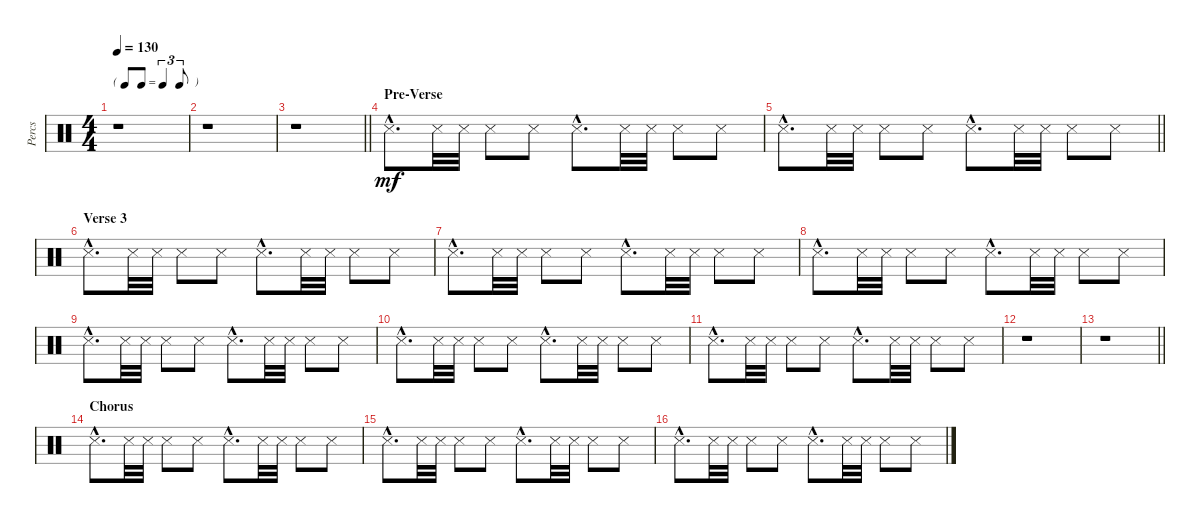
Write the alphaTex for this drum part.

\track ("Percs" "Percs") {instrument percussion}
\staff {score}
\articulation defaults
\ts (4 4)
\tf triplet8th
\tempo 130
\clef neutral
\ks c
r.1{dy mf} |
r.1 |
\barLineRight lightlight
r.1 |
\section ("" "Pre-Verse")
"Snare (side stick) 3"{hac}.8{d} "Snare (side stick) 3".32 "Snare (side stick) 3".32 "Snare (side stick) 3".8 "Snare (side stick) 3".8 "Snare (side stick) 3"{hac}.8{d} "Snare (side stick) 3".32 "Snare (side stick) 3".32 "Snare (side stick) 3".8 "Snare (side stick) 3".8 |
\barLineRight lightlight "Snare (side stick) 3"{hac}.8{d} "Snare (side stick) 3".32 "Snare (side stick) 3".32 "Snare (side stick) 3".8 "Snare (side stick) 3".8 "Snare (side stick) 3"{hac}.8{d} "Snare (side stick) 3".32 "Snare (side stick) 3".32 "Snare (side stick) 3".8 "Snare (side stick) 3".8
|
\section ("" "Verse 3")
"Snare (side stick) 3"{hac}.8{d} "Snare (side stick) 3".32 "Snare (side stick) 3".32 "Snare (side stick) 3".8 "Snare (side stick) 3".8 "Snare (side stick) 3"{hac}.8{d} "Snare (side stick) 3".32 "Snare (side stick) 3".32 "Snare (side stick) 3".8 "Snare (side stick) 3".8 |
"Snare (side stick) 3"{hac}.8{d} "Snare (side stick) 3".32 "Snare (side stick) 3".32 "Snare (side stick) 3".8 "Snare (side stick) 3".8 "Snare (side stick) 3"{hac}.8{d} "Snare (side stick) 3".32 "Snare (side stick) 3".32 "Snare (side stick) 3".8 "Snare (side stick) 3".8 |
"Snare (side stick) 3"{hac}.8{d} "Snare (side stick) 3".32 "Snare (side stick) 3".32 "Snare (side stick) 3".8 "Snare (side stick) 3".8 "Snare (side stick) 3"{hac}.8{d} "Snare (side stick) 3".32 "Snare (side stick) 3".32 "Snare (side stick) 3".8 "Snare (side stick) 3".8 |
"Snare (side stick) 3"{hac}.8{d} "Snare (side stick) 3".32 "Snare (side stick) 3".32 "Snare (side stick) 3".8 "Snare (side stick) 3".8 "Snare (side stick) 3"{hac}.8{d} "Snare (side stick) 3".32 "Snare (side stick) 3".32 "Snare (side stick) 3".8 "Snare (side stick) 3".8 |
"Snare (side stick) 3"{hac}.8{d} "Snare (side stick) 3".32 "Snare (side stick) 3".32 "Snare (side stick) 3".8 "Snare (side stick) 3".8 "Snare (side stick) 3"{hac}.8{d} "Snare (side stick) 3".32 "Snare (side stick) 3".32 "Snare (side stick) 3".8 "Snare (side stick) 3".8 |
"Snare (side stick) 3"{hac}.8{d} "Snare (side stick) 3".32 "Snare (side stick) 3".32 "Snare (side stick) 3".8 "Snare (side stick) 3".8 "Snare (side stick) 3"{hac}.8{d} "Snare (side stick) 3".32 "Snare (side stick) 3".32 "Snare (side stick) 3".8 "Snare (side stick) 3".8 |
r.1 |
\barLineRight lightlight
r.1 |
\section ("" "Chorus")
"Snare (side stick) 3"{hac}.8{d} "Snare (side stick) 3".32 "Snare (side stick) 3".32 "Snare (side stick) 3".8 "Snare (side stick) 3".8 "Snare (side stick) 3"{hac}.8{d} "Snare (side stick) 3".32 "Snare (side stick) 3".32 "Snare (side stick) 3".8 "Snare (side stick) 3".8 |
"Snare (side stick) 3"{hac}.8{d} "Snare (side stick) 3".32 "Snare (side stick) 3".32 "Snare (side stick) 3".8 "Snare (side stick) 3".8 "Snare (side stick) 3"{hac}.8{d} "Snare (side stick) 3".32 "Snare (side stick) 3".32 "Snare (side stick) 3".8 "Snare (side stick) 3".8 |
"Snare (side stick) 3"{hac}.8{d} "Snare (side stick) 3".32 "Snare (side stick) 3".32 "Snare (side stick) 3".8 "Snare (side stick) 3".8 "Snare (side stick) 3"{hac}.8{d} "Snare (side stick) 3".32 "Snare (side stick) 3".32 "Snare (side stick) 3".8 "Snare (side stick) 3".8
